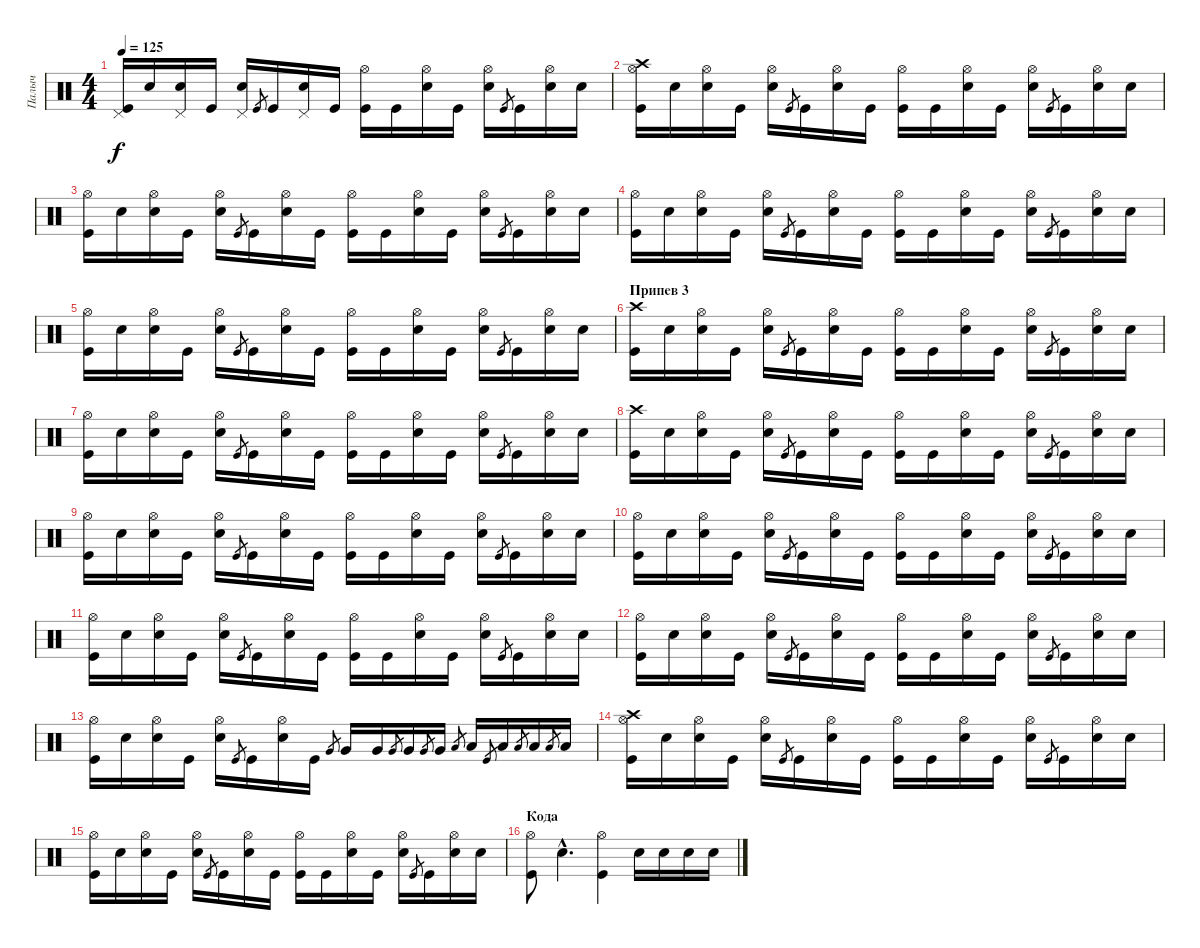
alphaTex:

\track ("Палыч" "Палыч") {instrument percussion}
\staff {score}
\articulation defaults
\ts (4 4)
\tempo 125
\clef neutral
\ks c
("Kick (hit)" "Pedal Hi-Hat (hit)").16{dy f} "Snare (hit)"{x}.16 ("Electric Snare (hit)" "Pedal Hi-Hat (hit)").16 "Kick (hit)".16 ("Electric Snare (hit)"{x} "Pedal Hi-Hat (hit)").16 "Kick (hit)".8{gr} "Kick (hit)".16 ("Electric Snare (hit)" "Pedal Hi-Hat (hit)").16 "Kick (hit)"{x}.16 ("Kick (hit)" "Hi-Hat (open)").16 "Kick (hit)"{x}.16 ("Electric Snare (hit)" "Hi-Hat (open)").16 "Kick (hit)".16 ("Snare (hit)"{x} "Hi-Hat (open)").16 "Kick (hit)".8{gr} "Kick (hit)".16 ("Electric Snare (hit)" "Hi-Hat (open)").16 "Snare (hit)"{x}.16 |
("Kick (hit)" "Crash high (hit)" "Hi-Hat (open)").16 "Snare (hit)"{x}.16 ("Snare (hit) 2" "Hi-Hat (open)").16 "Kick (hit)".16 ("Electric Snare (hit)"{x} "Hi-Hat (open)").16 "Kick (hit)".8{gr} "Kick (hit)".16 ("Snare (hit) 2" "Hi-Hat (open)").16 "Kick (hit)"{x}.16 ("Kick (hit)" "Hi-Hat (open)").16 "Kick (hit)"{x}.16 ("Snare (hit) 2" "Hi-Hat (open)").16 "Kick (hit)".16 ("Snare (hit)"{x} "Hi-Hat (open)").16 "Kick (hit)".8{gr} "Kick (hit)".16 ("Snare (hit) 2" "Hi-Hat (open)").16 "Snare (hit)"{x}.16 |
("Kick (hit)" "Hi-Hat (open)").16 "Snare (hit)"{x}.16 ("Snare (hit) 2" "Hi-Hat (open)").16 "Kick (hit)".16 ("Electric Snare (hit)"{x} "Hi-Hat (open)").16 "Kick (hit)".8{gr} "Kick (hit)".16 ("Snare (hit) 2" "Hi-Hat (open)").16 "Kick (hit)"{x}.16 ("Kick (hit)" "Hi-Hat (open)").16 "Kick (hit)"{x}.16 ("Snare (hit) 2" "Hi-Hat (open)").16 "Kick (hit)".16 ("Snare (hit)"{x} "Hi-Hat (open)").16 "Kick (hit)".8{gr} "Kick (hit)".16 ("Snare (hit) 2" "Hi-Hat (open)").16 "Snare (hit)"{x}.16 |
("Kick (hit)" "Hi-Hat (open)").16 "Snare (hit)"{x}.16 ("Snare (hit) 2" "Hi-Hat (open)").16 "Kick (hit)".16 ("Electric Snare (hit)"{x} "Hi-Hat (open)").16 "Kick (hit)".8{gr} "Kick (hit)".16 ("Snare (hit) 2" "Hi-Hat (open)").16 "Kick (hit)"{x}.16 ("Kick (hit)" "Hi-Hat (open)").16 "Kick (hit)"{x}.16 ("Snare (hit) 2" "Hi-Hat (open)").16 "Kick (hit)".16 ("Snare (hit)"{x} "Hi-Hat (open)").16 "Kick (hit)".8{gr} "Kick (hit)".16 ("Snare (hit) 2" "Hi-Hat (open)").16 "Snare (hit)"{x}.16 |
("Kick (hit)" "Hi-Hat (open)").16 "Snare (hit)"{x}.16 ("Snare (hit) 2" "Hi-Hat (open)").16 "Kick (hit)".16 ("Electric Snare (hit)"{x} "Hi-Hat (open)").16 "Kick (hit)".8{gr} "Kick (hit)".16 ("Snare (hit) 2" "Hi-Hat (open)").16 "Kick (hit)"{x}.16 ("Kick (hit)" "Hi-Hat (open)").16 "Kick (hit)"{x}.16 ("Snare (hit) 2" "Hi-Hat (open)").16 "Kick (hit)".16 ("Snare (hit)"{x} "Hi-Hat (open)").16 "Kick (hit)".8{gr} "Kick (hit)".16 ("Snare (hit) 2" "Hi-Hat (open)").16 "Snare (hit)"{x}.16 |
\section ("" "Припев 3")
("Kick (hit)" "Crash high (hit)").16 "Snare (hit)"{x}.16 ("Snare (hit) 2" "Hi-Hat (open)").16 "Kick (hit)".16 ("Electric Snare (hit)"{x} "Hi-Hat (open)").16 "Kick (hit)".8{gr} "Kick (hit)".16 ("Snare (hit) 2" "Hi-Hat (open)").16 "Kick (hit)"{x}.16 ("Kick (hit)" "Hi-Hat (open)").16 "Kick (hit)"{x}.16 ("Snare (hit) 2" "Hi-Hat (open)").16 "Kick (hit)".16 ("Snare (hit)"{x} "Hi-Hat (open)").16 "Kick (hit)".8{gr} "Kick (hit)".16 ("Snare (hit) 2" "Hi-Hat (open)").16 "Snare (hit)"{x}.16 |
("Kick (hit)" "Hi-Hat (open)").16 "Snare (hit)"{x}.16 ("Snare (hit) 2" "Hi-Hat (open)").16 "Kick (hit)".16 ("Electric Snare (hit)"{x} "Hi-Hat (open)").16 "Kick (hit)".8{gr} "Kick (hit)".16 ("Snare (hit) 2" "Hi-Hat (open)").16 "Kick (hit)"{x}.16 ("Kick (hit)" "Hi-Hat (open)").16 "Kick (hit)"{x}.16 ("Snare (hit) 2" "Hi-Hat (open)").16 "Kick (hit)".16 ("Snare (hit)"{x} "Hi-Hat (open)").16 "Kick (hit)".8{gr} "Kick (hit)".16 ("Snare (hit) 2" "Hi-Hat (open)").16 "Snare (hit)"{x}.16 |
("Kick (hit)" "Crash high (hit)").16 "Snare (hit)"{x}.16 ("Snare (hit) 2" "Hi-Hat (open)").16 "Kick (hit)".16 ("Electric Snare (hit)"{x} "Hi-Hat (open)").16 "Kick (hit)".8{gr} "Kick (hit)".16 ("Snare (hit) 2" "Hi-Hat (open)").16 "Kick (hit)"{x}.16 ("Kick (hit)" "Hi-Hat (open)").16 "Kick (hit)"{x}.16 ("Snare (hit) 2" "Hi-Hat (open)").16 "Kick (hit)".16 ("Snare (hit)"{x} "Hi-Hat (open)").16 "Kick (hit)".8{gr} "Kick (hit)".16 ("Snare (hit) 2" "Hi-Hat (open)").16 "Snare (hit)"{x}.16 |
("Kick (hit)" "Hi-Hat (open)").16 "Snare (hit)"{x}.16 ("Snare (hit) 2" "Hi-Hat (open)").16 "Kick (hit)".16 ("Electric Snare (hit)"{x} "Hi-Hat (open)").16 "Kick (hit)".8{gr} "Kick (hit)".16 ("Snare (hit) 2" "Hi-Hat (open)").16 "Kick (hit)"{x}.16 ("Kick (hit)" "Hi-Hat (open)").16 "Kick (hit)"{x}.16 ("Snare (hit) 2" "Hi-Hat (open)").16 "Kick (hit)".16 ("Snare (hit)"{x} "Hi-Hat (open)").16 "Kick (hit)".8{gr} "Kick (hit)".16 ("Snare (hit) 2" "Hi-Hat (open)").16 "Snare (hit)"{x}.16 |
("Kick (hit)" "Hi-Hat (open)").16 "Snare (hit)"{x}.16 ("Snare (hit) 2" "Hi-Hat (open)").16 "Kick (hit)".16 ("Electric Snare (hit)"{x} "Hi-Hat (open)").16 "Kick (hit)".8{gr} "Kick (hit)".16 ("Snare (hit) 2" "Hi-Hat (open)").16 "Kick (hit)"{x}.16 ("Kick (hit)" "Hi-Hat (open)").16 "Kick (hit)"{x}.16 ("Snare (hit) 2" "Hi-Hat (open)").16 "Kick (hit)".16 ("Snare (hit)"{x} "Hi-Hat (open)").16 "Kick (hit)".8{gr} "Kick (hit)".16 ("Snare (hit) 2" "Hi-Hat (open)").16 "Snare (hit)"{x}.16 |
("Kick (hit)" "Hi-Hat (open)").16 "Snare (hit)"{x}.16 ("Snare (hit) 2" "Hi-Hat (open)").16 "Kick (hit)".16 ("Electric Snare (hit)"{x} "Hi-Hat (open)").16 "Kick (hit)".8{gr} "Kick (hit)".16 ("Snare (hit) 2" "Hi-Hat (open)").16 "Kick (hit)"{x}.16 ("Kick (hit)" "Hi-Hat (open)").16 "Kick (hit)"{x}.16 ("Snare (hit) 2" "Hi-Hat (open)").16 "Kick (hit)".16 ("Snare (hit)"{x} "Hi-Hat (open)").16 "Kick (hit)".8{gr} "Kick (hit)".16 ("Snare (hit) 2" "Hi-Hat (open)").16 "Snare (hit)"{x}.16 |
("Kick (hit)" "Hi-Hat (open)").16 "Snare (hit)"{x}.16 ("Snare (hit) 2" "Hi-Hat (open)").16 "Kick (hit)".16 ("Electric Snare (hit)"{x} "Hi-Hat (open)").16 "Kick (hit)".8{gr} "Kick (hit)".16 ("Snare (hit) 2" "Hi-Hat (open)").16 "Kick (hit)"{x}.16 ("Kick (hit)" "Hi-Hat (open)").16 "Kick (hit)"{x}.16 ("Snare (hit) 2" "Hi-Hat (open)").16 "Kick (hit)".16 ("Snare (hit)"{x} "Hi-Hat (open)").16 "Kick (hit)".8{gr} "Kick (hit)".16 ("Snare (hit) 2" "Hi-Hat (open)").16 "Snare (hit)"{x}.16 |
("Kick (hit)" "Hi-Hat (open)").16 "Snare (hit)"{x}.16 ("Snare (hit) 2" "Hi-Hat (open)").16 "Kick (hit)".16 ("Electric Snare (hit)"{x} "Hi-Hat (open)").16 "Kick (hit)".8{gr} "Kick (hit)".16 ("Snare (hit) 2" "Hi-Hat (open)").16 "Kick (hit)"{x}.16 "Very Low Tom (hit)".8{gr} "Very Low Tom (hit)".16 "Very Low Tom (hit)".16 "Very Low Tom (hit)".8{gr} "Very Low Tom (hit)".16 "Very Low Tom (hit)".8{gr} "Very Low Tom (hit)".16 "Low Floor Tom (hit)".8{gr} "Low Floor Tom (hit)".16 "Kick (hit)".8{gr} "Low Floor Tom (hit)".16 "Low Floor Tom (hit)".8{gr} "Low Floor Tom (hit)".16 "Low Floor Tom (hit)".8{gr} "Low Floor Tom (hit)".16 |
("Kick (hit)" "Crash high (hit)" "Hi-Hat (open)").16 "Snare (hit)"{x}.16 ("Snare (hit) 2" "Hi-Hat (open)").16 "Kick (hit)".16 ("Electric Snare (hit)"{x} "Hi-Hat (open)").16 "Kick (hit)".8{gr} "Kick (hit)".16 ("Snare (hit) 2" "Hi-Hat (open)").16 "Kick (hit)"{x}.16 ("Kick (hit)" "Hi-Hat (open)").16 "Kick (hit)"{x}.16 ("Snare (hit) 2" "Hi-Hat (open)").16 "Kick (hit)".16 ("Snare (hit)"{x} "Hi-Hat (open)").16 "Kick (hit)".8{gr} "Kick (hit)".16 ("Snare (hit) 2" "Hi-Hat (open)").16 "Snare (hit)"{x}.16 |
("Kick (hit)" "Hi-Hat (open)").16 "Snare (hit)"{x}.16 ("Snare (hit) 2" "Hi-Hat (open)").16 "Kick (hit)".16 ("Electric Snare (hit)"{x} "Hi-Hat (open)").16 "Kick (hit)".8{gr} "Kick (hit)".16 ("Snare (hit) 2" "Hi-Hat (open)").16 "Kick (hit)"{x}.16 ("Kick (hit)" "Hi-Hat (open)").16 "Kick (hit)"{x}.16 ("Snare (hit) 2" "Hi-Hat (open)").16 "Kick (hit)".16 ("Snare (hit)"{x} "Hi-Hat (open)").16 "Kick (hit)".8{gr} "Kick (hit)".16 ("Snare (hit) 2" "Hi-Hat (open)").16 "Snare (hit)"{x}.16 |
\section ("" "Кода")
("Kick (hit)" "Hi-Hat (open)").8 "Snare (hit)"{hac x}.4{d} ("Kick (hit)" "Hi-Hat (open)").4 "Electric Snare (hit)".16 "Electric Snare (hit)".16 "Electric Snare (hit)".16 "Electric Snare (hit)".16
